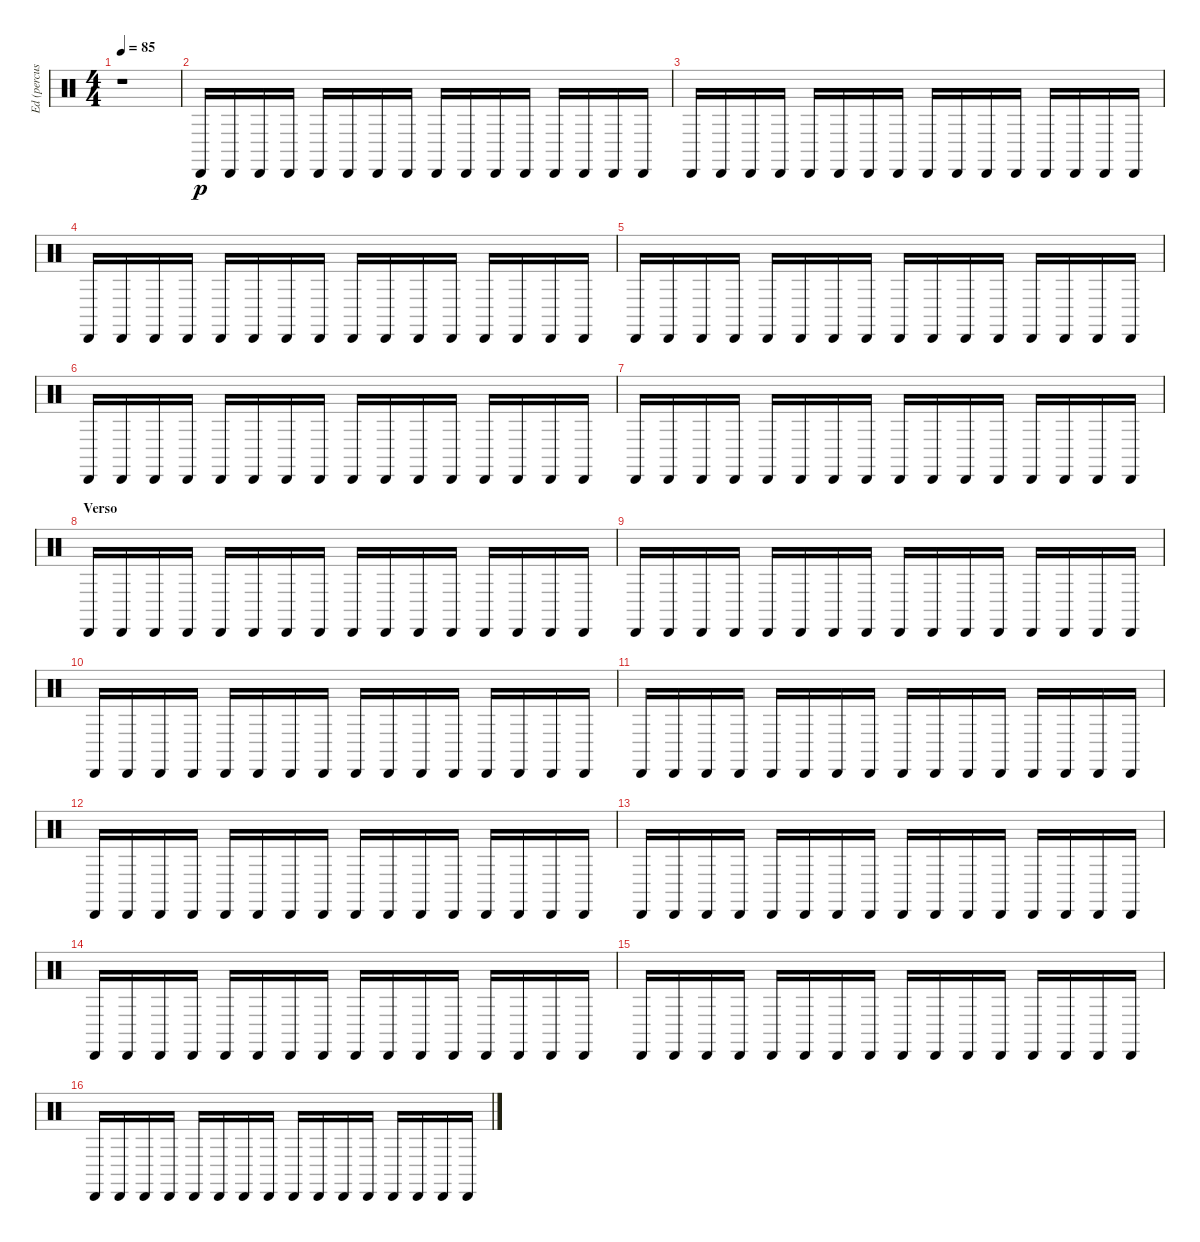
\track ("Ed (percusion)" "Ed (percus") {instrument percussion}
\staff {score}
\articulation defaults
\ts (4 4)
\tempo 85
\clef neutral
\ks c
r.1{dy p} |
"Cabasa (hit)".16 "Cabasa (hit)".16 "Cabasa (hit)".16 "Cabasa (hit)".16 "Cabasa (hit)".16 "Cabasa (hit)".16 "Cabasa (hit)".16 "Cabasa (hit)".16 "Cabasa (hit)".16 "Cabasa (hit)".16 "Cabasa (hit)".16 "Cabasa (hit)".16 "Cabasa (hit)".16 "Cabasa (hit)".16 "Cabasa (hit)".16 "Cabasa (hit)".16 |
"Cabasa (hit)".16 "Cabasa (hit)".16 "Cabasa (hit)".16 "Cabasa (hit)".16 "Cabasa (hit)".16 "Cabasa (hit)".16 "Cabasa (hit)".16 "Cabasa (hit)".16 "Cabasa (hit)".16 "Cabasa (hit)".16 "Cabasa (hit)".16 "Cabasa (hit)".16 "Cabasa (hit)".16 "Cabasa (hit)".16 "Cabasa (hit)".16 "Cabasa (hit)".16 |
"Cabasa (hit)".16 "Cabasa (hit)".16 "Cabasa (hit)".16 "Cabasa (hit)".16 "Cabasa (hit)".16 "Cabasa (hit)".16 "Cabasa (hit)".16 "Cabasa (hit)".16 "Cabasa (hit)".16 "Cabasa (hit)".16 "Cabasa (hit)".16 "Cabasa (hit)".16 "Cabasa (hit)".16 "Cabasa (hit)".16 "Cabasa (hit)".16 "Cabasa (hit)".16 |
"Cabasa (hit)".16 "Cabasa (hit)".16 "Cabasa (hit)".16 "Cabasa (hit)".16 "Cabasa (hit)".16 "Cabasa (hit)".16 "Cabasa (hit)".16 "Cabasa (hit)".16 "Cabasa (hit)".16 "Cabasa (hit)".16 "Cabasa (hit)".16 "Cabasa (hit)".16 "Cabasa (hit)".16 "Cabasa (hit)".16 "Cabasa (hit)".16 "Cabasa (hit)".16 |
"Cabasa (hit)".16 "Cabasa (hit)".16 "Cabasa (hit)".16 "Cabasa (hit)".16 "Cabasa (hit)".16 "Cabasa (hit)".16 "Cabasa (hit)".16 "Cabasa (hit)".16 "Cabasa (hit)".16 "Cabasa (hit)".16 "Cabasa (hit)".16 "Cabasa (hit)".16 "Cabasa (hit)".16 "Cabasa (hit)".16 "Cabasa (hit)".16 "Cabasa (hit)".16 |
"Cabasa (hit)".16 "Cabasa (hit)".16 "Cabasa (hit)".16 "Cabasa (hit)".16 "Cabasa (hit)".16 "Cabasa (hit)".16 "Cabasa (hit)".16 "Cabasa (hit)".16 "Cabasa (hit)".16 "Cabasa (hit)".16 "Cabasa (hit)".16 "Cabasa (hit)".16 "Cabasa (hit)".16 "Cabasa (hit)".16 "Cabasa (hit)".16 "Cabasa (hit)".16 |
\section ("" "Verso")
"Cabasa (hit)".16 "Cabasa (hit)".16 "Cabasa (hit)".16 "Cabasa (hit)".16 "Cabasa (hit)".16 "Cabasa (hit)".16 "Cabasa (hit)".16 "Cabasa (hit)".16 "Cabasa (hit)".16 "Cabasa (hit)".16 "Cabasa (hit)".16 "Cabasa (hit)".16 "Cabasa (hit)".16 "Cabasa (hit)".16 "Cabasa (hit)".16 "Cabasa (hit)".16 |
"Cabasa (hit)".16 "Cabasa (hit)".16 "Cabasa (hit)".16 "Cabasa (hit)".16 "Cabasa (hit)".16 "Cabasa (hit)".16 "Cabasa (hit)".16 "Cabasa (hit)".16 "Cabasa (hit)".16 "Cabasa (hit)".16 "Cabasa (hit)".16 "Cabasa (hit)".16 "Cabasa (hit)".16 "Cabasa (hit)".16 "Cabasa (hit)".16 "Cabasa (hit)".16 |
"Cabasa (hit)".16 "Cabasa (hit)".16 "Cabasa (hit)".16 "Cabasa (hit)".16 "Cabasa (hit)".16 "Cabasa (hit)".16 "Cabasa (hit)".16 "Cabasa (hit)".16 "Cabasa (hit)".16 "Cabasa (hit)".16 "Cabasa (hit)".16 "Cabasa (hit)".16 "Cabasa (hit)".16 "Cabasa (hit)".16 "Cabasa (hit)".16 "Cabasa (hit)".16 |
"Cabasa (hit)".16 "Cabasa (hit)".16 "Cabasa (hit)".16 "Cabasa (hit)".16 "Cabasa (hit)".16 "Cabasa (hit)".16 "Cabasa (hit)".16 "Cabasa (hit)".16 "Cabasa (hit)".16 "Cabasa (hit)".16 "Cabasa (hit)".16 "Cabasa (hit)".16 "Cabasa (hit)".16 "Cabasa (hit)".16 "Cabasa (hit)".16 "Cabasa (hit)".16 |
"Cabasa (hit)".16 "Cabasa (hit)".16 "Cabasa (hit)".16 "Cabasa (hit)".16 "Cabasa (hit)".16 "Cabasa (hit)".16 "Cabasa (hit)".16 "Cabasa (hit)".16 "Cabasa (hit)".16 "Cabasa (hit)".16 "Cabasa (hit)".16 "Cabasa (hit)".16 "Cabasa (hit)".16 "Cabasa (hit)".16 "Cabasa (hit)".16 "Cabasa (hit)".16 |
"Cabasa (hit)".16 "Cabasa (hit)".16 "Cabasa (hit)".16 "Cabasa (hit)".16 "Cabasa (hit)".16 "Cabasa (hit)".16 "Cabasa (hit)".16 "Cabasa (hit)".16 "Cabasa (hit)".16 "Cabasa (hit)".16 "Cabasa (hit)".16 "Cabasa (hit)".16 "Cabasa (hit)".16 "Cabasa (hit)".16 "Cabasa (hit)".16 "Cabasa (hit)".16 |
"Cabasa (hit)".16 "Cabasa (hit)".16 "Cabasa (hit)".16 "Cabasa (hit)".16 "Cabasa (hit)".16 "Cabasa (hit)".16 "Cabasa (hit)".16 "Cabasa (hit)".16 "Cabasa (hit)".16 "Cabasa (hit)".16 "Cabasa (hit)".16 "Cabasa (hit)".16 "Cabasa (hit)".16 "Cabasa (hit)".16 "Cabasa (hit)".16 "Cabasa (hit)".16 |
"Cabasa (hit)".16 "Cabasa (hit)".16 "Cabasa (hit)".16 "Cabasa (hit)".16 "Cabasa (hit)".16 "Cabasa (hit)".16 "Cabasa (hit)".16 "Cabasa (hit)".16 "Cabasa (hit)".16 "Cabasa (hit)".16 "Cabasa (hit)".16 "Cabasa (hit)".16 "Cabasa (hit)".16 "Cabasa (hit)".16 "Cabasa (hit)".16 "Cabasa (hit)".16 |
"Cabasa (hit)".16 "Cabasa (hit)".16 "Cabasa (hit)".16 "Cabasa (hit)".16 "Cabasa (hit)".16 "Cabasa (hit)".16 "Cabasa (hit)".16 "Cabasa (hit)".16 "Cabasa (hit)".16 "Cabasa (hit)".16 "Cabasa (hit)".16 "Cabasa (hit)".16 "Cabasa (hit)".16 "Cabasa (hit)".16 "Cabasa (hit)".16 "Cabasa (hit)".16
